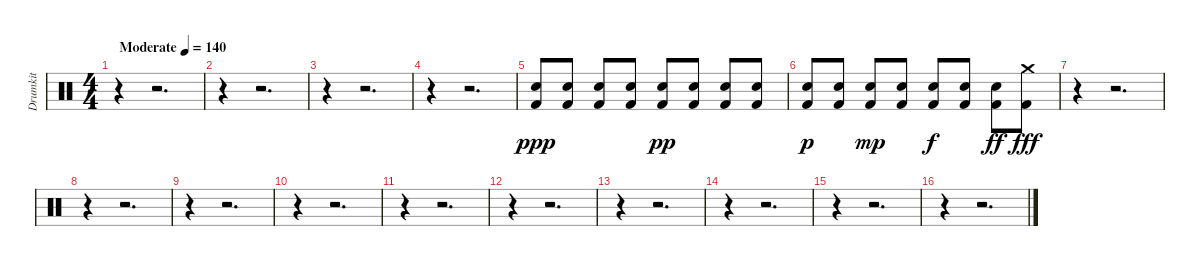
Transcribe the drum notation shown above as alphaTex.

\track ("Drumkit" "Drumkit") {instrument percussion}
\staff {score}
\articulation defaults
\ts (4 4)
\tempo (140 "Moderate")
\clef neutral
\ks c
r.4{dy ppp} r.2{d} |
r.4 r.2{d} |
r.4 r.2{d} |
r.4 r.2{d} |
("Snare (hit) 2" "Kick (hit) 2").8 ("Snare (hit) 2" "Kick (hit) 2").8 ("Snare (hit) 2" "Kick (hit) 2").8 ("Snare (hit) 2" "Kick (hit) 2").8 ("Snare (hit) 2" "Kick (hit) 2").8{dy pp} ("Snare (hit) 2" "Kick (hit) 2").8 ("Snare (hit) 2" "Kick (hit) 2").8 ("Snare (hit) 2" "Kick (hit) 2").8 |
("Snare (hit) 2" "Kick (hit) 2").8{dy p} ("Snare (hit) 2" "Kick (hit) 2").8 ("Snare (hit) 2" "Kick (hit) 2").8{dy mp} ("Snare (hit) 2" "Kick (hit) 2").8 ("Snare (hit) 2" "Kick (hit) 2").8{dy f} ("Snare (hit) 2" "Kick (hit) 2").8 ("Snare (hit) 2" "Kick (hit) 2").8{dy ff} ("Crash medium (hit)" "Kick (hit) 2").8{dy fff} |
r.4 r.2{d} |
r.4 r.2{d} |
r.4 r.2{d} |
r.4 r.2{d} |
r.4 r.2{d} |
r.4 r.2{d} |
r.4 r.2{d} |
r.4 r.2{d} |
r.4 r.2{d} |
r.4 r.2{d}
